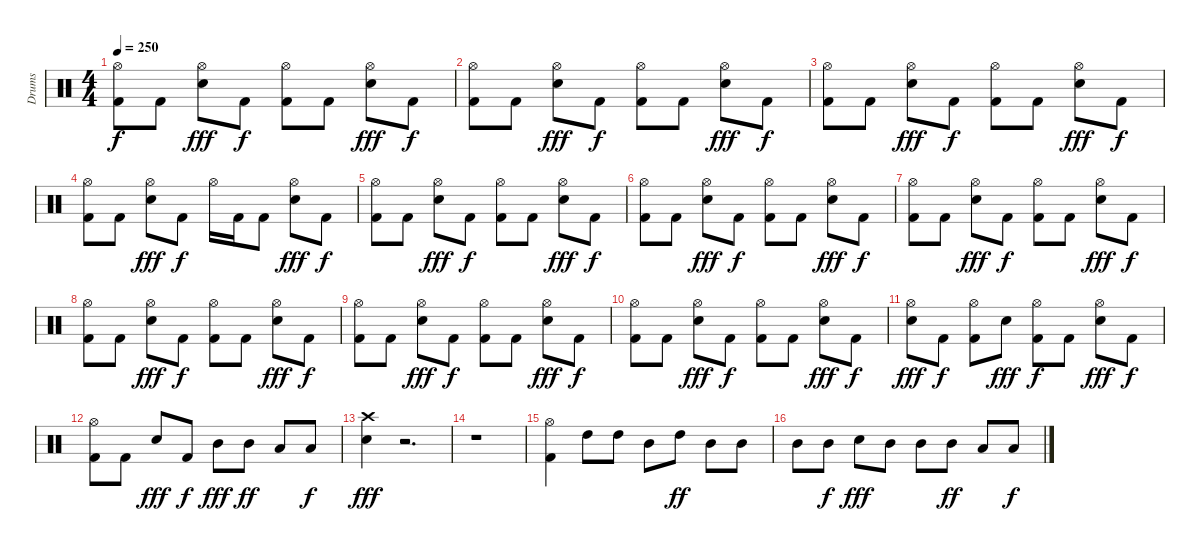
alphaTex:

\track ("Drums" "Drums") {instrument percussion}
\staff {score}
\articulation defaults
\ts (4 4)
\tempo 250
\clef neutral
\ks c
("Kick (hit) 2" "Hi-Hat (open)").8{dy f} "Kick (hit) 2".8 ("Hi-Hat (open)" "Snare (hit) 2").8{dy fff} "Kick (hit) 2".8{dy f} ("Hi-Hat (open)" "Kick (hit) 2").8 "Kick (hit) 2".8 ("Hi-Hat (open)" "Snare (hit) 2").8{dy fff} "Kick (hit) 2".8{dy f} |
("Kick (hit) 2" "Hi-Hat (open)").8 "Kick (hit) 2".8 ("Hi-Hat (open)" "Snare (hit) 2").8{dy fff} "Kick (hit) 2".8{dy f} ("Hi-Hat (open)" "Kick (hit) 2").8 "Kick (hit) 2".8 ("Hi-Hat (open)" "Snare (hit) 2").8{dy fff} "Kick (hit) 2".8{dy f} |
("Hi-Hat (open)" "Kick (hit) 2").8 "Kick (hit) 2".8 ("Hi-Hat (open)" "Snare (hit) 2").8{dy fff} "Kick (hit) 2".8{dy f} ("Hi-Hat (open)" "Kick (hit) 2").8 "Kick (hit) 2".8 ("Hi-Hat (open)" "Snare (hit) 2").8{dy fff} "Kick (hit) 2".8{dy f} |
("Hi-Hat (open)" "Kick (hit) 2").8 "Kick (hit) 2".8 ("Hi-Hat (open)" "Snare (hit) 2").8{dy fff} "Kick (hit) 2".8{dy f} "Hi-Hat (open)".16 "Kick (hit) 2".16 "Kick (hit) 2".8 ("Hi-Hat (open)" "Snare (hit) 2").8{dy fff} "Kick (hit) 2".8{dy f} |
("Kick (hit) 2" "Hi-Hat (open)").8 "Kick (hit) 2".8 ("Hi-Hat (open)" "Snare (hit) 2").8{dy fff} "Kick (hit) 2".8{dy f} ("Hi-Hat (open)" "Kick (hit) 2").8 "Kick (hit) 2".8 ("Hi-Hat (open)" "Snare (hit) 2").8{dy fff} "Kick (hit) 2".8{dy f} |
("Hi-Hat (open)" "Kick (hit) 2").8 "Kick (hit) 2".8 ("Hi-Hat (open)" "Snare (hit) 2").8{dy fff} "Kick (hit) 2".8{dy f} ("Hi-Hat (open)" "Kick (hit) 2").8 "Kick (hit) 2".8 ("Hi-Hat (open)" "Snare (hit) 2").8{dy fff} "Kick (hit) 2".8{dy f} |
("Hi-Hat (open)" "Kick (hit) 2").8 "Kick (hit) 2".8 ("Hi-Hat (open)" "Snare (hit) 2").8{dy fff} "Kick (hit) 2".8{dy f} ("Hi-Hat (open)" "Kick (hit) 2").8 "Kick (hit) 2".8 ("Hi-Hat (open)" "Snare (hit) 2").8{dy fff} "Kick (hit) 2".8{dy f} |
("Kick (hit) 2" "Hi-Hat (open)").8 "Kick (hit) 2".8 ("Hi-Hat (open)" "Snare (hit) 2").8{dy fff} "Kick (hit) 2".8{dy f} ("Hi-Hat (open)" "Kick (hit) 2").8 "Kick (hit) 2".8 ("Hi-Hat (open)" "Snare (hit) 2").8{dy fff} "Kick (hit) 2".8{dy f} |
("Hi-Hat (open)" "Kick (hit) 2").8 "Kick (hit) 2".8 ("Hi-Hat (open)" "Snare (hit) 2").8{dy fff} "Kick (hit) 2".8{dy f} ("Hi-Hat (open)" "Kick (hit) 2").8 "Kick (hit) 2".8 ("Hi-Hat (open)" "Snare (hit) 2").8{dy fff} "Kick (hit) 2".8{dy f} |
("Hi-Hat (open)" "Kick (hit) 2").8 "Kick (hit) 2".8 ("Hi-Hat (open)" "Snare (hit) 2").8{dy fff} "Kick (hit) 2".8{dy f} ("Hi-Hat (open)" "Kick (hit) 2").8 "Kick (hit) 2".8 ("Hi-Hat (open)" "Snare (hit) 2").8{dy fff} "Kick (hit) 2".8{dy f} |
("Hi-Hat (open)" "Snare (hit) 2").8{dy fff} "Kick (hit) 2".8{dy f} ("Hi-Hat (open)" "Kick (hit) 2").8 "Snare (hit) 2".8{dy fff} ("Kick (hit) 2" "Hi-Hat (open)").8{dy f} "Kick (hit) 2".8 ("Hi-Hat (open)" "Snare (hit) 2").8{dy fff} "Kick (hit) 2".8{dy f} |
("Hi-Hat (open)" "Kick (hit) 2").8 "Kick (hit) 2".8 "Snare (hit) 2".8{dy fff} "Kick (hit) 2".8{dy f} "Mid Tom (hit)".8{dy fff} "Mid Tom (hit)".8{dy ff} "Low Tom (hit)".8 "Low Tom (hit)".8{dy f} |
("Crash high (hit)" "Snare (hit) 2").4{dy fff} r.2{d} |
r.1 |
("Hi-Hat (open)" "Kick (hit) 2").4 "High Tom (hit)".8 "High Tom (hit)".8 "Mid Tom (hit)".8 "High Tom (hit)".8{dy ff} "Mid Tom (hit)".8 "Mid Tom (hit)".8 |
"Mid Tom (hit)".8 "Mid Tom (hit)".8{dy f} "Snare (hit) 2".8{dy fff} "Mid Tom (hit)".8 "Mid Tom (hit)".8 "Mid Tom (hit)".8{dy ff} "Low Tom (hit)".8 "Low Tom (hit)".8{dy f}
